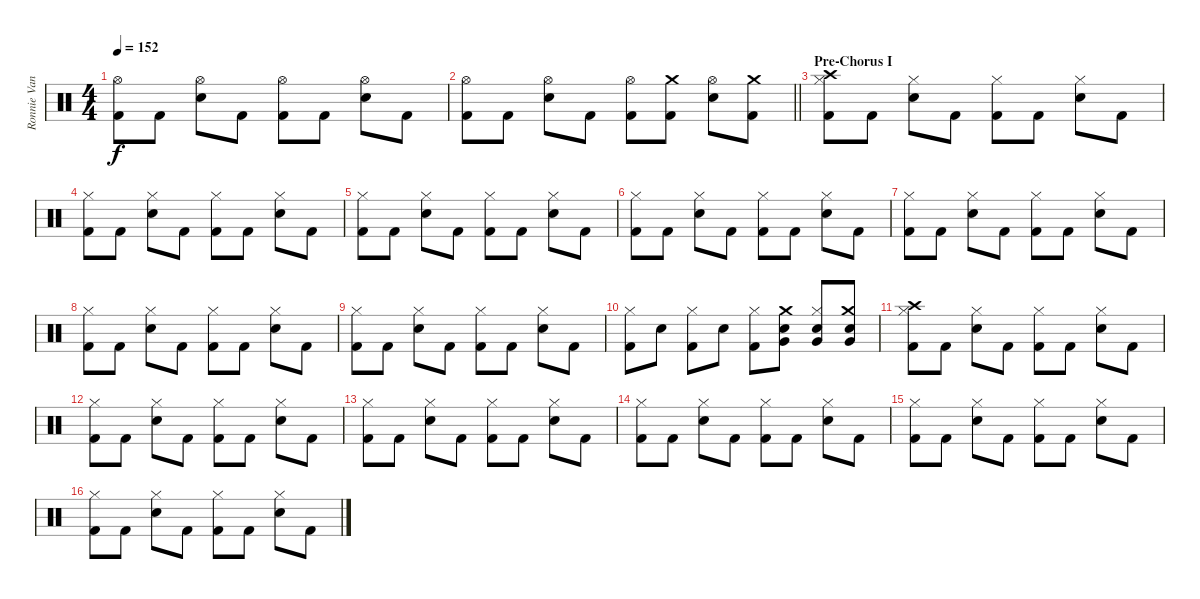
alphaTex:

\track ("Ronnie Vannucci Jr." "Ronnie Van") {instrument percussion}
\staff
\articulation defaults
\ts (4 4)
\tempo 152
\clef neutral
\ks c
("Hi-Hat (open)" "Kick (hit) 2").8{dy f} "Kick (hit) 2".8 ("Hi-Hat (open)" "Electric Snare (hit)").8 "Kick (hit) 2".8 ("Hi-Hat (open)" "Kick (hit) 2").8 "Kick (hit) 2".8 ("Hi-Hat (open)" "Electric Snare (hit)").8 "Kick (hit) 2".8 |
\barLineRight lightlight
("Hi-Hat (open)" "Kick (hit) 2").8 "Kick (hit) 2".8 ("Hi-Hat (open)" "Electric Snare (hit)").8 "Kick (hit) 2".8 ("Hi-Hat (open)" "Kick (hit) 2").8 ("Crash medium (hit)" "Kick (hit) 2").8 ("Hi-Hat (open)" "Electric Snare (hit)").8 ("Crash medium (hit)" "Kick (hit) 2").8 |
\section ("" "Pre-Chorus I")
("Crash high (hit)" "Hi-Hat (closed)" "Kick (hit) 2").8 "Kick (hit) 2".8 ("Hi-Hat (closed)" "Electric Snare (hit)").8 "Kick (hit) 2".8 ("Hi-Hat (closed)" "Kick (hit) 2").8 "Kick (hit) 2".8 ("Hi-Hat (closed)" "Electric Snare (hit)").8 "Kick (hit) 2".8 |
("Hi-Hat (closed)" "Kick (hit) 2").8 "Kick (hit) 2".8 ("Hi-Hat (closed)" "Electric Snare (hit)").8 "Kick (hit) 2".8 ("Hi-Hat (closed)" "Kick (hit) 2").8 "Kick (hit) 2".8 ("Hi-Hat (closed)" "Electric Snare (hit)").8 "Kick (hit) 2".8 |
("Hi-Hat (closed)" "Kick (hit) 2").8 "Kick (hit) 2".8 ("Hi-Hat (closed)" "Electric Snare (hit)").8 "Kick (hit) 2".8 ("Hi-Hat (closed)" "Kick (hit) 2").8 "Kick (hit) 2".8 ("Hi-Hat (closed)" "Electric Snare (hit)").8 "Kick (hit) 2".8 |
("Hi-Hat (closed)" "Kick (hit) 2").8 "Kick (hit) 2".8 ("Hi-Hat (closed)" "Electric Snare (hit)").8 "Kick (hit) 2".8 ("Hi-Hat (closed)" "Kick (hit) 2").8 "Kick (hit) 2".8 ("Hi-Hat (closed)" "Electric Snare (hit)").8 "Kick (hit) 2".8 |
("Hi-Hat (closed)" "Kick (hit) 2").8 "Kick (hit) 2".8 ("Hi-Hat (closed)" "Electric Snare (hit)").8 "Kick (hit) 2".8 ("Hi-Hat (closed)" "Kick (hit) 2").8 "Kick (hit) 2".8 ("Hi-Hat (closed)" "Electric Snare (hit)").8 "Kick (hit) 2".8 |
("Hi-Hat (closed)" "Kick (hit) 2").8 "Kick (hit) 2".8 ("Hi-Hat (closed)" "Electric Snare (hit)").8 "Kick (hit) 2".8 ("Hi-Hat (closed)" "Kick (hit) 2").8 "Kick (hit) 2".8 ("Hi-Hat (closed)" "Electric Snare (hit)").8 "Kick (hit) 2".8 |
("Hi-Hat (closed)" "Kick (hit) 2").8 "Kick (hit) 2".8 ("Hi-Hat (closed)" "Electric Snare (hit)").8 "Kick (hit) 2".8 ("Hi-Hat (closed)" "Kick (hit) 2").8 "Kick (hit) 2".8 ("Hi-Hat (closed)" "Electric Snare (hit)").8 "Kick (hit) 2".8 |
("Hi-Hat (closed)" "Kick (hit) 2").8 "Electric Snare (hit)".8 ("Hi-Hat (closed)" "Kick (hit) 2").8 "Electric Snare (hit)".8 ("Hi-Hat (closed)" "Kick (hit) 2").8 ("Crash medium (hit)" "Very Low Tom (hit)" "Electric Snare (hit)").8 ("Hi-Hat (closed)" "Very Low Tom (hit)" "Electric Snare (hit)").8 ("Crash medium (hit)" "Very Low Tom (hit)" "Electric Snare (hit)").8 |
("Crash high (hit)" "Hi-Hat (closed)" "Kick (hit) 2").8 "Kick (hit) 2".8 ("Hi-Hat (closed)" "Electric Snare (hit)").8 "Kick (hit) 2".8 ("Hi-Hat (closed)" "Kick (hit) 2").8 "Kick (hit) 2".8 ("Hi-Hat (closed)" "Electric Snare (hit)").8 "Kick (hit) 2".8 |
("Hi-Hat (closed)" "Kick (hit) 2").8 "Kick (hit) 2".8 ("Hi-Hat (closed)" "Electric Snare (hit)").8 "Kick (hit) 2".8 ("Hi-Hat (closed)" "Kick (hit) 2").8 "Kick (hit) 2".8 ("Hi-Hat (closed)" "Electric Snare (hit)").8 "Kick (hit) 2".8 |
("Hi-Hat (closed)" "Kick (hit) 2").8 "Kick (hit) 2".8 ("Hi-Hat (closed)" "Electric Snare (hit)").8 "Kick (hit) 2".8 ("Hi-Hat (closed)" "Kick (hit) 2").8 "Kick (hit) 2".8 ("Hi-Hat (closed)" "Electric Snare (hit)").8 "Kick (hit) 2".8 |
("Hi-Hat (closed)" "Kick (hit) 2").8 "Kick (hit) 2".8 ("Hi-Hat (closed)" "Electric Snare (hit)").8 "Kick (hit) 2".8 ("Hi-Hat (closed)" "Kick (hit) 2").8 "Kick (hit) 2".8 ("Hi-Hat (closed)" "Electric Snare (hit)").8 "Kick (hit) 2".8 |
("Hi-Hat (closed)" "Kick (hit) 2").8 "Kick (hit) 2".8 ("Hi-Hat (closed)" "Electric Snare (hit)").8 "Kick (hit) 2".8 ("Hi-Hat (closed)" "Kick (hit) 2").8 "Kick (hit) 2".8 ("Hi-Hat (closed)" "Electric Snare (hit)").8 "Kick (hit) 2".8 |
("Hi-Hat (closed)" "Kick (hit) 2").8 "Kick (hit) 2".8 ("Hi-Hat (closed)" "Electric Snare (hit)").8 "Kick (hit) 2".8 ("Hi-Hat (closed)" "Kick (hit) 2").8 "Kick (hit) 2".8 ("Hi-Hat (closed)" "Electric Snare (hit)").8 "Kick (hit) 2".8
